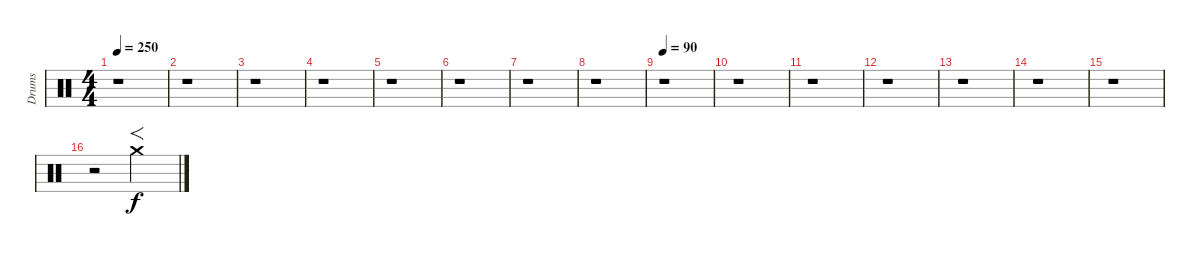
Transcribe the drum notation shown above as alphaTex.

\track ("Drums" "Drums") {instrument percussion}
\staff {score}
\articulation defaults
\ts (4 4)
\tempo 250
\clef neutral
\ks c
r.1{dy f} |
r.1 |
r.1 |
r.1 |
r.1 |
r.1 |
r.1 |
r.1 |
\tempo 90
r.1 |
r.1 |
r.1 |
r.1 |
r.1 |
r.1 |
r.1 |
r.2 "Crash medium (hit)"{tr (49 64)}.2{f}
